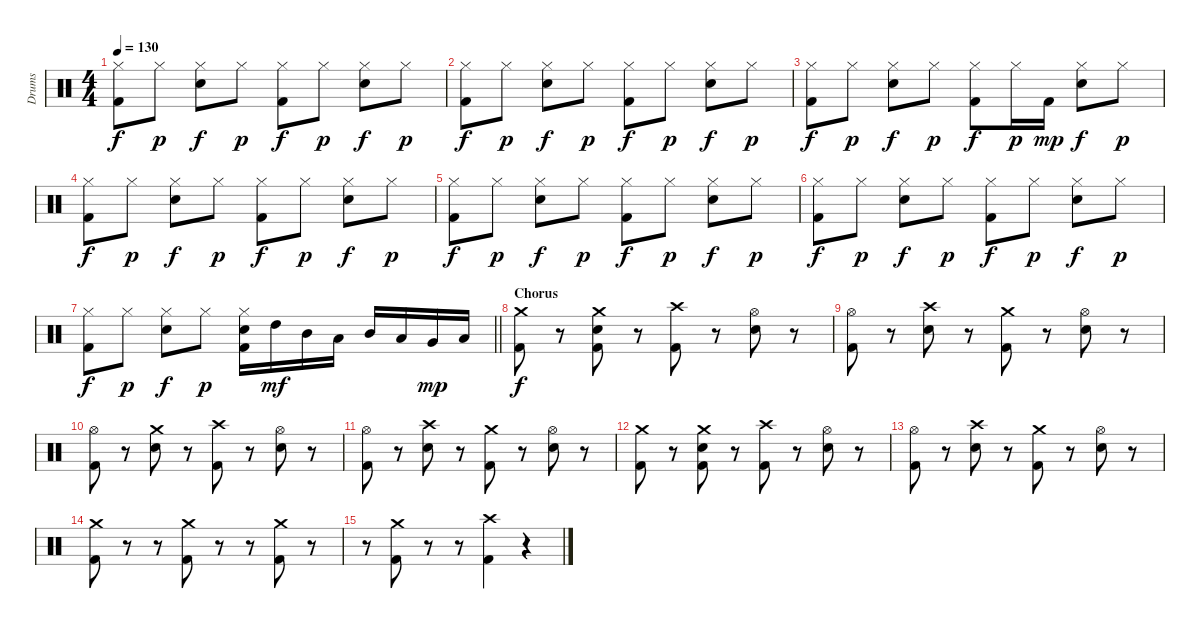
\track ("Drums" "Drums") {instrument percussion}
\staff {score}
\articulation defaults
\ts (4 4)
\tempo 130
\clef neutral
\ks c
("Hi-Hat (closed)" "Kick (hit) 2").8{dy f} "Hi-Hat (closed)".8{dy p} ("Hi-Hat (closed)" "Electric Snare (hit)").8{dy f} "Hi-Hat (closed)".8{dy p} ("Hi-Hat (closed)" "Kick (hit) 2").8{dy f} "Hi-Hat (closed)".8{dy p} ("Hi-Hat (closed)" "Electric Snare (hit)").8{dy f} "Hi-Hat (closed)".8{dy p} |
("Hi-Hat (closed)" "Kick (hit) 2").8{dy f} "Hi-Hat (closed)".8{dy p} ("Hi-Hat (closed)" "Electric Snare (hit)").8{dy f} "Hi-Hat (closed)".8{dy p} ("Hi-Hat (closed)" "Kick (hit) 2").8{dy f} "Hi-Hat (closed)".8{dy p} ("Hi-Hat (closed)" "Electric Snare (hit)").8{dy f} "Hi-Hat (closed)".8{dy p} |
("Hi-Hat (closed)" "Kick (hit) 2").8{dy f} "Hi-Hat (closed)".8{dy p} ("Hi-Hat (closed)" "Electric Snare (hit)").8{dy f} "Hi-Hat (closed)".8{dy p} ("Hi-Hat (closed)" "Kick (hit) 2").8{dy f} "Hi-Hat (closed)".16{dy p} "Kick (hit) 2".16{dy mp} ("Hi-Hat (closed)" "Electric Snare (hit)").8{dy f} "Hi-Hat (closed)".8{dy p} |
("Hi-Hat (closed)" "Kick (hit) 2").8{dy f} "Hi-Hat (closed)".8{dy p} ("Hi-Hat (closed)" "Electric Snare (hit)").8{dy f} "Hi-Hat (closed)".8{dy p} ("Hi-Hat (closed)" "Kick (hit) 2").8{dy f} "Hi-Hat (closed)".8{dy p} ("Hi-Hat (closed)" "Electric Snare (hit)").8{dy f} "Hi-Hat (closed)".8{dy p} |
("Hi-Hat (closed)" "Kick (hit) 2").8{dy f} "Hi-Hat (closed)".8{dy p} ("Hi-Hat (closed)" "Electric Snare (hit)").8{dy f} "Hi-Hat (closed)".8{dy p} ("Hi-Hat (closed)" "Kick (hit) 2").8{dy f} "Hi-Hat (closed)".8{dy p} ("Hi-Hat (closed)" "Electric Snare (hit)").8{dy f} "Hi-Hat (closed)".8{dy p} |
("Hi-Hat (closed)" "Kick (hit) 2").8{dy f} "Hi-Hat (closed)".8{dy p} ("Hi-Hat (closed)" "Electric Snare (hit)").8{dy f} "Hi-Hat (closed)".8{dy p} ("Hi-Hat (closed)" "Kick (hit) 2").8{dy f} "Hi-Hat (closed)".8{dy p} ("Hi-Hat (closed)" "Electric Snare (hit)").8{dy f} "Hi-Hat (closed)".8{dy p} |
\barLineRight lightlight
("Hi-Hat (closed)" "Kick (hit) 2").8{dy f} "Hi-Hat (closed)".8{dy p} ("Hi-Hat (closed)" "Electric Snare (hit)").8{dy f} "Hi-Hat (closed)".8{dy p} ("Hi-Hat (closed)" "Electric Snare (hit)" "Kick (hit) 2").16 "High Tom (hit)".16{dy mf} "Mid Tom (hit)".16 "Low Tom (hit)".16 "Mid Tom (hit)".16 "Low Tom (hit)".16 "Very Low Tom (hit)".16{dy mp} "Low Floor Tom (hit)".16 |
\section ("" "Chorus")
("Crash medium (hit)" "Kick (hit) 2").8{dy f} r.8 ("Crash medium (hit)" "Electric Snare (hit)" "Kick (hit) 2").8 r.8 ("Crash high (hit)" "Kick (hit) 2").8 r.8 ("Hi-Hat (open)" "Electric Snare (hit)").8 r.8 |
("Hi-Hat (open)" "Kick (hit) 2").8 r.8 ("Crash high (hit)" "Electric Snare (hit)").8 r.8 ("Crash medium (hit)" "Kick (hit) 2").8 r.8 ("Hi-Hat (open)" "Electric Snare (hit)").8 r.8 |
("Hi-Hat (open)" "Kick (hit) 2").8 r.8 ("Crash medium (hit)" "Electric Snare (hit)").8 r.8 ("Crash high (hit)" "Kick (hit) 2").8 r.8 ("Hi-Hat (open)" "Electric Snare (hit)").8 r.8 |
("Hi-Hat (open)" "Kick (hit) 2").8 r.8 ("Crash high (hit)" "Electric Snare (hit)").8 r.8 ("Crash medium (hit)" "Kick (hit) 2").8 r.8 ("Hi-Hat (open)" "Electric Snare (hit)").8 r.8 |
("Crash medium (hit)" "Kick (hit) 2").8 r.8 ("Crash medium (hit)" "Electric Snare (hit)" "Kick (hit) 2").8 r.8 ("Crash high (hit)" "Kick (hit) 2").8 r.8 ("Hi-Hat (open)" "Electric Snare (hit)").8 r.8 |
("Hi-Hat (open)" "Kick (hit) 2").8 r.8 ("Crash high (hit)" "Electric Snare (hit)").8 r.8 ("Crash medium (hit)" "Kick (hit) 2").8 r.8 ("Hi-Hat (open)" "Electric Snare (hit)").8 r.8 |
("Crash medium (hit)" "Kick (hit) 2").8 r.8 r.8 ("Crash medium (hit)" "Kick (hit) 2").8 r.8 r.8 ("Crash medium (hit)" "Kick (hit) 2").8 r.8 |
r.8 ("Crash medium (hit)" "Kick (hit) 2").8 r.8 r.8 ("Crash high (hit)" "Kick (hit) 2").4 r.4
